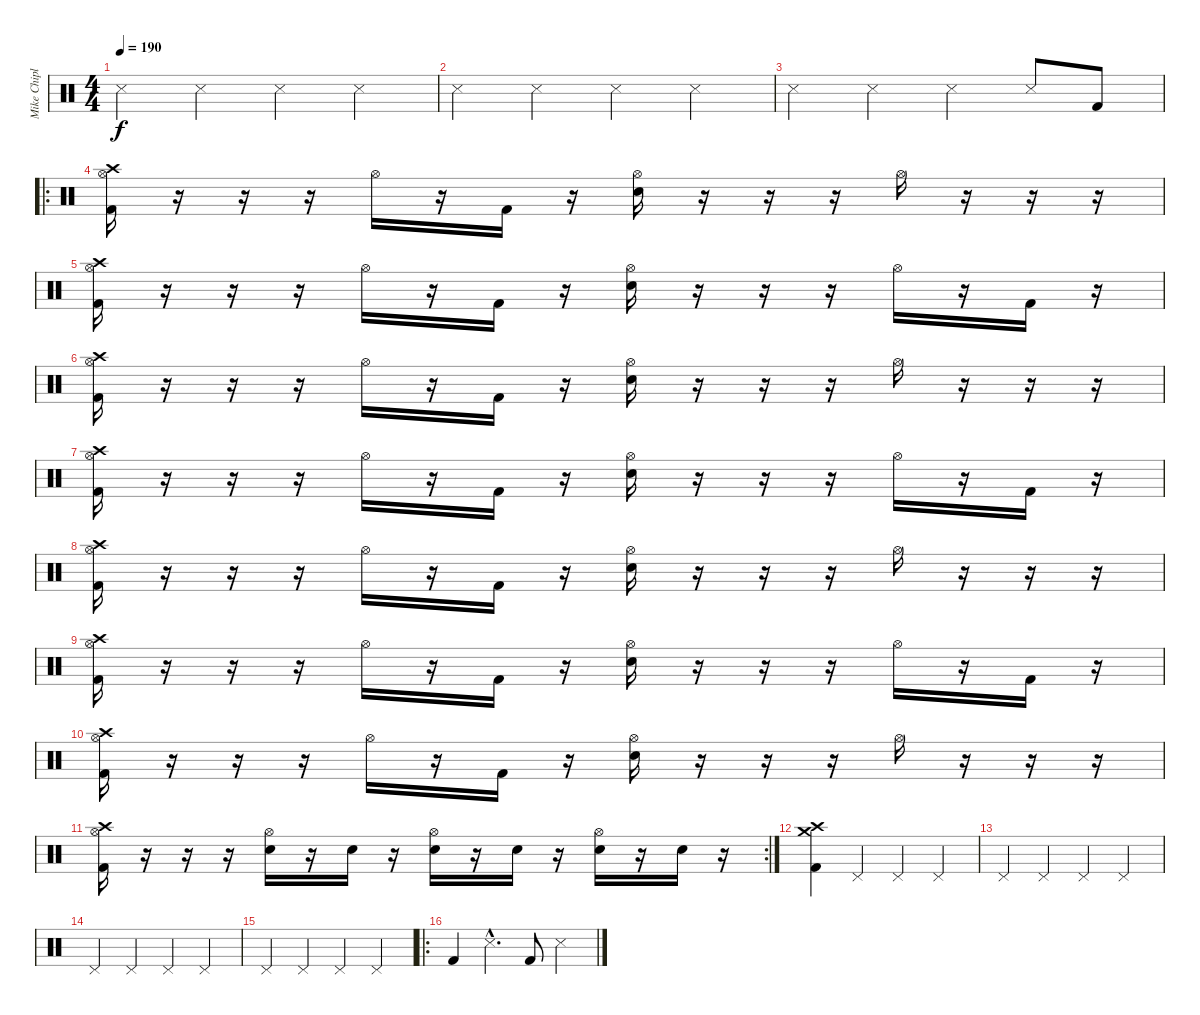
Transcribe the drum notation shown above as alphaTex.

\track ("Mike Chiplin" "Mike Chipl") {instrument percussion}
\staff {score}
\articulation defaults
\ts (4 4)
\tempo 190
\clef neutral
\ks c "Snare (side stick) 3".4{dy f} "Snare (side stick) 3".4 "Snare (side stick) 3".4 "Snare (side stick) 3".4
|
"Snare (side stick) 3".4 "Snare (side stick) 3".4 "Snare (side stick) 3".4 "Snare (side stick) 3".4 |
"Snare (side stick) 3".4 "Snare (side stick) 3".4 "Snare (side stick) 3".4 "Snare (side stick) 3".8 "Kick (hit) 2".8 |
\ro
("Hi-Hat (open)" "Kick (hit) 2" "Crash high (hit)").16 r.16 r.16 r.16 "Hi-Hat (open)".16 r.16 "Kick (hit) 2".16 r.16 ("Hi-Hat (open)" "Snare (hit) 2").16 r.16 r.16 r.16 "Hi-Hat (open)".16 r.16 r.16 r.16 |
("Hi-Hat (open)" "Kick (hit) 2" "Crash high (hit)").16 r.16 r.16 r.16 "Hi-Hat (open)".16 r.16 "Kick (hit) 2".16 r.16 ("Hi-Hat (open)" "Snare (hit) 2").16 r.16 r.16 r.16 "Hi-Hat (open)".16 r.16 "Kick (hit) 2".16 r.16 |
("Hi-Hat (open)" "Kick (hit) 2" "Crash high (hit)").16 r.16 r.16 r.16 "Hi-Hat (open)".16 r.16 "Kick (hit) 2".16 r.16 ("Hi-Hat (open)" "Snare (hit) 2").16 r.16 r.16 r.16 "Hi-Hat (open)".16 r.16 r.16 r.16 |
("Hi-Hat (open)" "Kick (hit) 2" "Crash high (hit)").16 r.16 r.16 r.16 "Hi-Hat (open)".16 r.16 "Kick (hit) 2".16 r.16 ("Hi-Hat (open)" "Snare (hit) 2").16 r.16 r.16 r.16 "Hi-Hat (open)".16 r.16 "Kick (hit) 2".16 r.16 |
("Hi-Hat (open)" "Kick (hit) 2" "Crash high (hit)").16 r.16 r.16 r.16 "Hi-Hat (open)".16 r.16 "Kick (hit) 2".16 r.16 ("Hi-Hat (open)" "Snare (hit) 2").16 r.16 r.16 r.16 "Hi-Hat (open)".16 r.16 r.16 r.16 |
("Hi-Hat (open)" "Kick (hit) 2" "Crash high (hit)").16 r.16 r.16 r.16 "Hi-Hat (open)".16 r.16 "Kick (hit) 2".16 r.16 ("Hi-Hat (open)" "Snare (hit) 2").16 r.16 r.16 r.16 "Hi-Hat (open)".16 r.16 "Kick (hit) 2".16 r.16 |
("Hi-Hat (open)" "Kick (hit) 2" "Crash high (hit)").16 r.16 r.16 r.16 "Hi-Hat (open)".16 r.16 "Kick (hit) 2".16 r.16 ("Hi-Hat (open)" "Snare (hit) 2").16 r.16 r.16 r.16 "Hi-Hat (open)".16 r.16 r.16 r.16 |
\rc 2
("Hi-Hat (open)" "Kick (hit) 2" "Crash high (hit)").16 r.16 r.16 r.16 ("Hi-Hat (open)" "Snare (hit) 2").16 r.16 "Snare (hit) 2".16 r.16 ("Hi-Hat (open)" "Snare (hit) 2").16 r.16 "Snare (hit) 2".16 r.16 ("Hi-Hat (open)" "Snare (hit) 2").16 r.16 "Snare (hit) 2".16 r.16 |
("Crash medium (hit)" "Kick (hit) 2" "Crash high (hit)").4 "Pedal Hi-Hat (hit)".4 "Pedal Hi-Hat (hit)".4 "Pedal Hi-Hat (hit)".4 |
"Pedal Hi-Hat (hit)".4 "Pedal Hi-Hat (hit)".4 "Pedal Hi-Hat (hit)".4 "Pedal Hi-Hat (hit)".4 |
"Pedal Hi-Hat (hit)".4 "Pedal Hi-Hat (hit)".4 "Pedal Hi-Hat (hit)".4 "Pedal Hi-Hat (hit)".4 |
"Pedal Hi-Hat (hit)".4 "Pedal Hi-Hat (hit)".4 "Pedal Hi-Hat (hit)".4 "Pedal Hi-Hat (hit)".4 |
\ro "Kick (hit) 2".4 "Snare (side stick) 3"{hac}.4{d} "Kick (hit) 2".8 "Snare (side stick) 3".4
